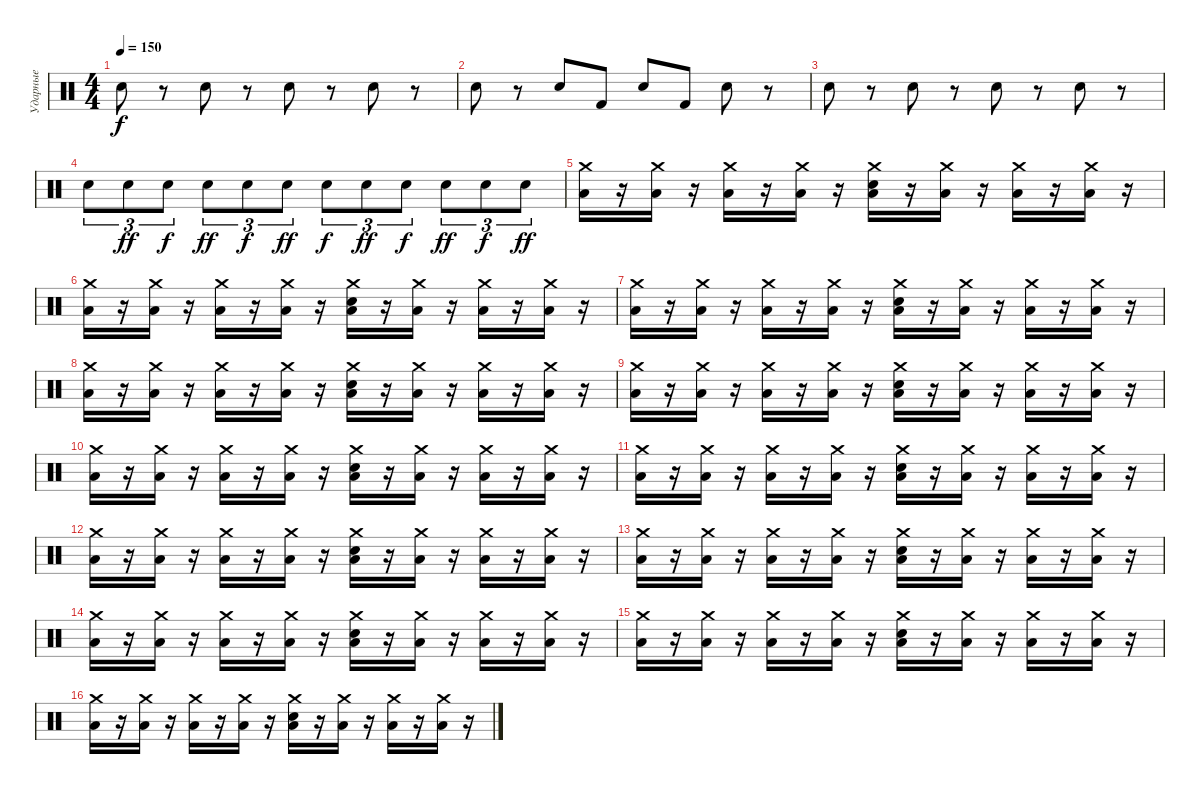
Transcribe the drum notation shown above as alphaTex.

\track ("Ударные" "Ударные") {instrument percussion}
\staff {score}
\articulation defaults
\ts (4 4)
\tempo 150
\clef neutral
\ks c "Snare (hit) 2".8{dy f}
r.8 "Snare (hit) 2".8 r.8 "Snare (hit) 2".8 r.8 "Snare (hit) 2".8 r.8 |
"Snare (hit) 2".8 r.8 "Snare (hit) 2".8 "Kick (hit) 2".8 "Snare (hit) 2".8 "Kick (hit) 2".8 "Snare (hit) 2".8 r.8 |
"Snare (hit) 2".8 r.8 "Snare (hit) 2".8 r.8 "Snare (hit) 2".8 r.8 "Snare (hit) 2".8 r.8 |
"Snare (hit) 2".8{tu (3 2)} "Snare (hit) 2".8{tu (3 2) dy ff} "Snare (hit) 2".8{tu (3 2) dy f} "Snare (hit) 2".8{tu (3 2) dy ff} "Snare (hit) 2".8{tu (3 2) dy f} "Snare (hit) 2".8{tu (3 2) dy ff} "Snare (hit) 2".8{tu (3 2) dy f} "Snare (hit) 2".8{tu (3 2) dy ff} "Snare (hit) 2".8{tu (3 2) dy f} "Snare (hit) 2".8{tu (3 2) dy ff} "Snare (hit) 2".8{tu (3 2) dy f} "Snare (hit) 2".8{tu (3 2) dy ff} |
("Crash medium (hit)" "Low Floor Tom (hit)").16 r.16 ("Crash medium (hit)" "Low Floor Tom (hit)").16 r.16 ("Crash medium (hit)" "Low Floor Tom (hit)").16 r.16 ("Crash medium (hit)" "Low Floor Tom (hit)").16 r.16 ("Crash medium (hit)" "Snare (hit) 2" "Low Floor Tom (hit)").16 r.16 ("Crash medium (hit)" "Low Floor Tom (hit)").16 r.16 ("Crash medium (hit)" "Low Floor Tom (hit)").16 r.16 ("Crash medium (hit)" "Low Floor Tom (hit)").16 r.16 |
("Crash medium (hit)" "Low Floor Tom (hit)").16 r.16 ("Crash medium (hit)" "Low Floor Tom (hit)").16 r.16 ("Crash medium (hit)" "Low Floor Tom (hit)").16 r.16 ("Crash medium (hit)" "Low Floor Tom (hit)").16 r.16 ("Crash medium (hit)" "Snare (hit) 2" "Low Floor Tom (hit)").16 r.16 ("Crash medium (hit)" "Low Floor Tom (hit)").16 r.16 ("Crash medium (hit)" "Low Floor Tom (hit)").16 r.16 ("Crash medium (hit)" "Low Floor Tom (hit)").16 r.16 |
("Crash medium (hit)" "Low Floor Tom (hit)").16 r.16 ("Crash medium (hit)" "Low Floor Tom (hit)").16 r.16 ("Crash medium (hit)" "Low Floor Tom (hit)").16 r.16 ("Crash medium (hit)" "Low Floor Tom (hit)").16 r.16 ("Crash medium (hit)" "Snare (hit) 2" "Low Floor Tom (hit)").16 r.16 ("Crash medium (hit)" "Low Floor Tom (hit)").16 r.16 ("Crash medium (hit)" "Low Floor Tom (hit)").16 r.16 ("Crash medium (hit)" "Low Floor Tom (hit)").16 r.16 |
("Crash medium (hit)" "Low Floor Tom (hit)").16 r.16 ("Crash medium (hit)" "Low Floor Tom (hit)").16 r.16 ("Crash medium (hit)" "Low Floor Tom (hit)").16 r.16 ("Crash medium (hit)" "Low Floor Tom (hit)").16 r.16 ("Crash medium (hit)" "Snare (hit) 2" "Low Floor Tom (hit)").16 r.16 ("Crash medium (hit)" "Low Floor Tom (hit)").16 r.16 ("Crash medium (hit)" "Low Floor Tom (hit)").16 r.16 ("Crash medium (hit)" "Low Floor Tom (hit)").16 r.16 |
("Crash medium (hit)" "Low Floor Tom (hit)").16 r.16 ("Crash medium (hit)" "Low Floor Tom (hit)").16 r.16 ("Crash medium (hit)" "Low Floor Tom (hit)").16 r.16 ("Crash medium (hit)" "Low Floor Tom (hit)").16 r.16 ("Crash medium (hit)" "Snare (hit) 2" "Low Floor Tom (hit)").16 r.16 ("Crash medium (hit)" "Low Floor Tom (hit)").16 r.16 ("Crash medium (hit)" "Low Floor Tom (hit)").16 r.16 ("Crash medium (hit)" "Low Floor Tom (hit)").16 r.16 |
("Crash medium (hit)" "Low Floor Tom (hit)").16 r.16 ("Crash medium (hit)" "Low Floor Tom (hit)").16 r.16 ("Crash medium (hit)" "Low Floor Tom (hit)").16 r.16 ("Crash medium (hit)" "Low Floor Tom (hit)").16 r.16 ("Crash medium (hit)" "Snare (hit) 2" "Low Floor Tom (hit)").16 r.16 ("Crash medium (hit)" "Low Floor Tom (hit)").16 r.16 ("Crash medium (hit)" "Low Floor Tom (hit)").16 r.16 ("Crash medium (hit)" "Low Floor Tom (hit)").16 r.16 |
("Crash medium (hit)" "Low Floor Tom (hit)").16 r.16 ("Crash medium (hit)" "Low Floor Tom (hit)").16 r.16 ("Crash medium (hit)" "Low Floor Tom (hit)").16 r.16 ("Crash medium (hit)" "Low Floor Tom (hit)").16 r.16 ("Crash medium (hit)" "Snare (hit) 2" "Low Floor Tom (hit)").16 r.16 ("Crash medium (hit)" "Low Floor Tom (hit)").16 r.16 ("Crash medium (hit)" "Low Floor Tom (hit)").16 r.16 ("Crash medium (hit)" "Low Floor Tom (hit)").16 r.16 |
("Crash medium (hit)" "Low Floor Tom (hit)").16 r.16 ("Crash medium (hit)" "Low Floor Tom (hit)").16 r.16 ("Crash medium (hit)" "Low Floor Tom (hit)").16 r.16 ("Crash medium (hit)" "Low Floor Tom (hit)").16 r.16 ("Crash medium (hit)" "Snare (hit) 2" "Low Floor Tom (hit)").16 r.16 ("Crash medium (hit)" "Low Floor Tom (hit)").16 r.16 ("Crash medium (hit)" "Low Floor Tom (hit)").16 r.16 ("Crash medium (hit)" "Low Floor Tom (hit)").16 r.16 |
("Crash medium (hit)" "Low Floor Tom (hit)").16 r.16 ("Crash medium (hit)" "Low Floor Tom (hit)").16 r.16 ("Crash medium (hit)" "Low Floor Tom (hit)").16 r.16 ("Crash medium (hit)" "Low Floor Tom (hit)").16 r.16 ("Crash medium (hit)" "Snare (hit) 2" "Low Floor Tom (hit)").16 r.16 ("Crash medium (hit)" "Low Floor Tom (hit)").16 r.16 ("Crash medium (hit)" "Low Floor Tom (hit)").16 r.16 ("Crash medium (hit)" "Low Floor Tom (hit)").16 r.16 |
("Crash medium (hit)" "Low Floor Tom (hit)").16 r.16 ("Crash medium (hit)" "Low Floor Tom (hit)").16 r.16 ("Crash medium (hit)" "Low Floor Tom (hit)").16 r.16 ("Crash medium (hit)" "Low Floor Tom (hit)").16 r.16 ("Crash medium (hit)" "Snare (hit) 2" "Low Floor Tom (hit)").16 r.16 ("Crash medium (hit)" "Low Floor Tom (hit)").16 r.16 ("Crash medium (hit)" "Low Floor Tom (hit)").16 r.16 ("Crash medium (hit)" "Low Floor Tom (hit)").16 r.16 |
("Crash medium (hit)" "Low Floor Tom (hit)").16 r.16 ("Crash medium (hit)" "Low Floor Tom (hit)").16 r.16 ("Crash medium (hit)" "Low Floor Tom (hit)").16 r.16 ("Crash medium (hit)" "Low Floor Tom (hit)").16 r.16 ("Crash medium (hit)" "Snare (hit) 2" "Low Floor Tom (hit)").16 r.16 ("Crash medium (hit)" "Low Floor Tom (hit)").16 r.16 ("Crash medium (hit)" "Low Floor Tom (hit)").16 r.16 ("Crash medium (hit)" "Low Floor Tom (hit)").16 r.16 |
("Crash medium (hit)" "Low Floor Tom (hit)").16 r.16 ("Crash medium (hit)" "Low Floor Tom (hit)").16 r.16 ("Crash medium (hit)" "Low Floor Tom (hit)").16 r.16 ("Crash medium (hit)" "Low Floor Tom (hit)").16 r.16 ("Crash medium (hit)" "Snare (hit) 2" "Low Floor Tom (hit)").16 r.16 ("Crash medium (hit)" "Low Floor Tom (hit)").16 r.16 ("Crash medium (hit)" "Low Floor Tom (hit)").16 r.16 ("Crash medium (hit)" "Low Floor Tom (hit)").16 r.16
